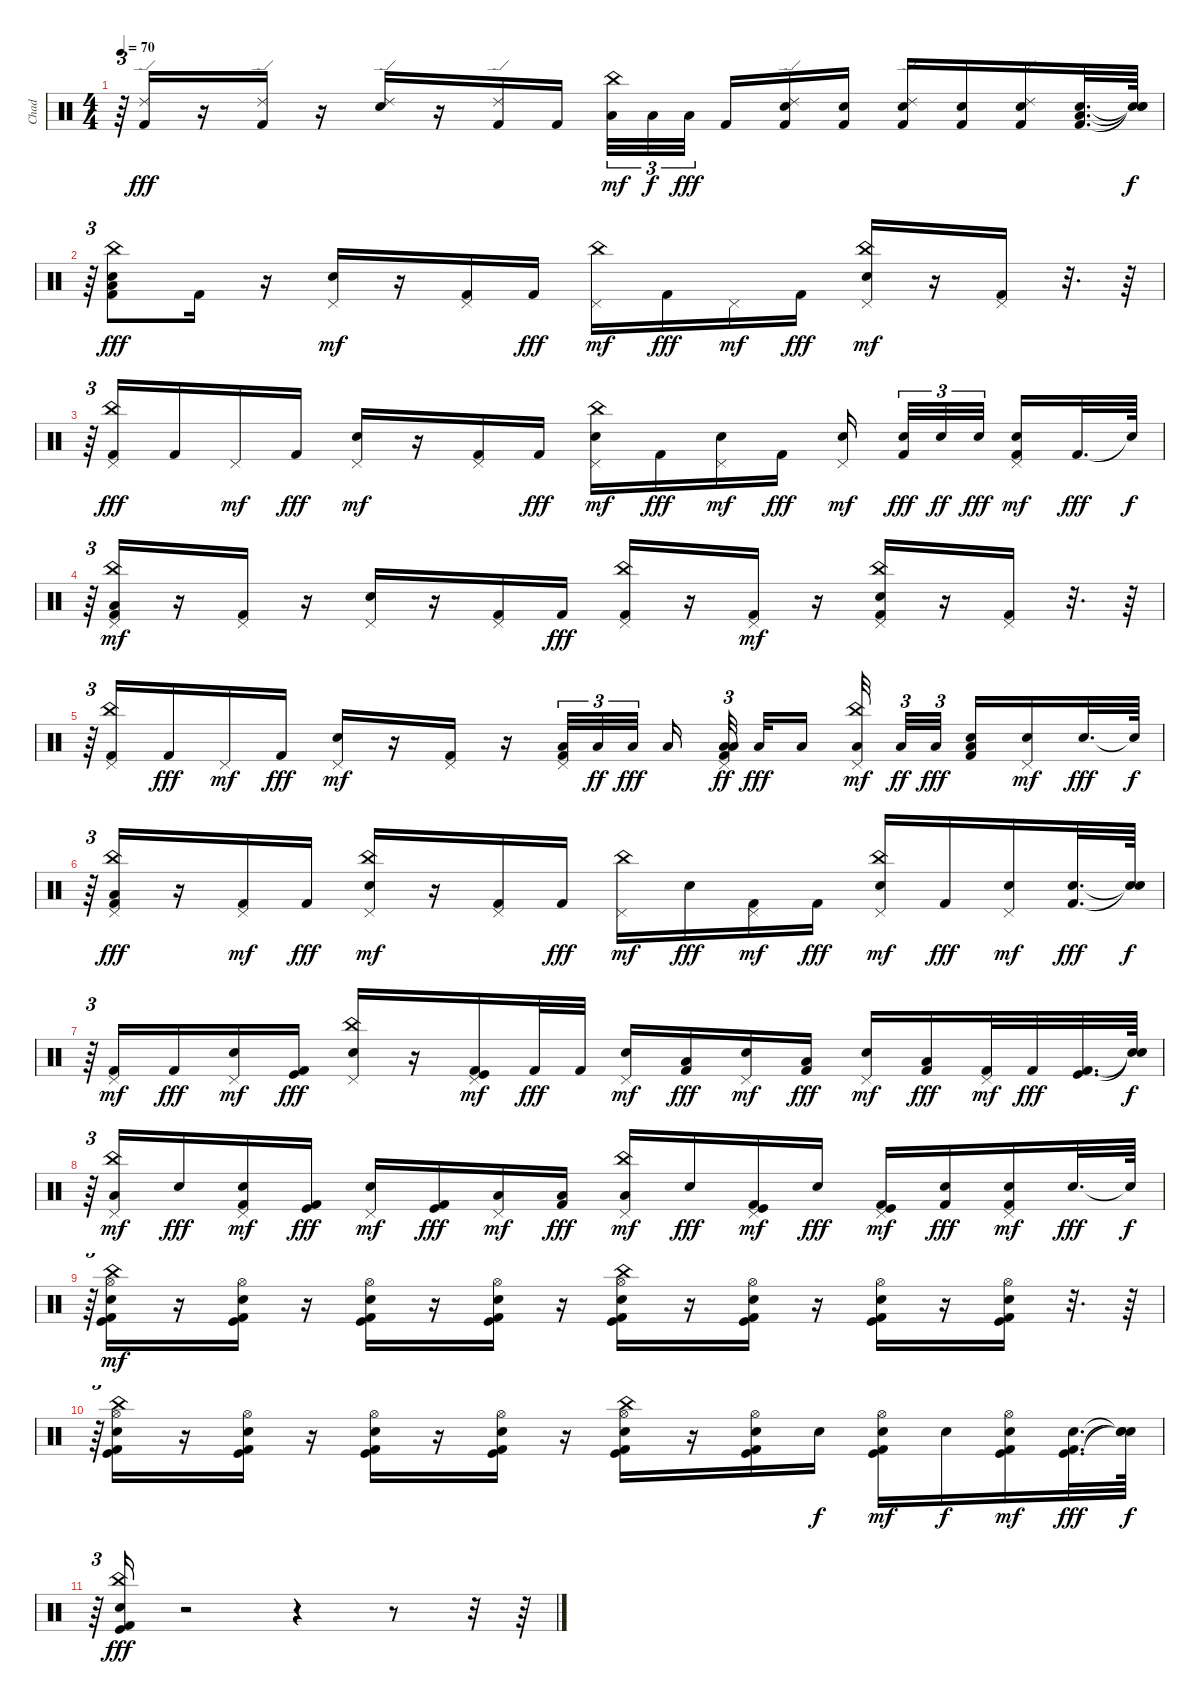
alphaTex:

\track ("Chad" "Chad") {instrument percussion}
\staff {score}
\articulation defaults
\ts (4 4)
\tempo 70
\clef neutral
\ks c
r.64{tu (3 2) dy fff} ("Kick (hit) 2" "Ride (edge) 2").16 r.16 ("Kick (hit) 2" "Ride (edge) 2").16 r.16 ("Snare (hit) 2" "Ride (edge) 2").16 r.16 ("Kick (hit) 2" "Ride (edge) 2").16 "Kick (hit) 2".16 ("Low Floor Tom (hit)" "China (hit)").32{tu (3 2) dy mf} "Low Floor Tom (hit)".32{tu (3 2) dy f} "Low Floor Tom (hit)".32{tu (3 2) dy fff beam splitsecondary} "Kick (hit) 2".16 ("Kick (hit) 2" "Hand Clap (hit)" "Ride (edge) 2").16 ("Kick (hit) 2" "Snare (hit) 2").16 ("Kick (hit) 2" "Snare (hit) 2" "Ride (edge) 2").16 ("Kick (hit) 2" "Snare (hit) 2").16 ("Kick (hit) 2" "Snare (hit) 2" "Ride (edge) 2").16 ("Kick (hit) 2" "Snare (hit) 2" "Low Floor Tom (hit)").32{d} ("Snare (hit)"{t} "Snare (hit)"{t} "Snare (hit)"{t}).64{dy f} |
r.64{tu (3 2)} ("Kick (hit) 2" "Snare (hit) 2" "Low Floor Tom (hit)" "China (hit)").8{dy fff} "Kick (hit) 2".16 r.16 ("Snare (hit) 2" "Pedal Hi-Hat (hit)").16{dy mf} r.16 ("Kick (hit) 2" "Pedal Hi-Hat (hit)").16 "Kick (hit) 2".16{dy fff} ("Pedal Hi-Hat (hit)" "China (hit)").16{dy mf} "Kick (hit) 2".16{dy fff} "Pedal Hi-Hat (hit)".16{dy mf} "Kick (hit) 2".16{dy fff} ("Snare (hit) 2" "Pedal Hi-Hat (hit)" "China (hit)").16{dy mf} r.16 ("Kick (hit) 2" "Pedal Hi-Hat (hit)").16 r.32{d} r.64 |
r.64{tu (3 2)} ("Kick (hit) 2" "Pedal Hi-Hat (hit)" "China (hit)").16{dy fff} "Kick (hit) 2".16 "Pedal Hi-Hat (hit)".16{dy mf} "Kick (hit) 2".16{dy fff} ("Snare (hit) 2" "Pedal Hi-Hat (hit)").16{dy mf} r.16 ("Kick (hit) 2" "Pedal Hi-Hat (hit)").16 "Kick (hit) 2".16{dy fff} ("Hand Clap (hit)" "Pedal Hi-Hat (hit)" "China (hit)").16{dy mf} "Kick (hit) 2".16{dy fff} ("Hand Clap (hit)" "Pedal Hi-Hat (hit)").16{dy mf} "Kick (hit) 2".16{dy fff} ("Hand Clap (hit)" "Pedal Hi-Hat (hit)").16{dy mf beam splitsecondary} ("Kick (hit) 2" "Hand Clap (hit)").32{tu (3 2) dy fff} "Hand Clap (hit)".32{tu (3 2) dy ff} "Hand Clap (hit)".32{tu (3 2) dy fff beam splitsecondary} ("Kick (hit) 2" "Snare (hit) 2" "Pedal Hi-Hat (hit)").16{dy mf} "Kick (hit) 2".32{d dy fff} "Snare (hit)"{t}.64{dy f} |
r.64{tu (3 2)} ("Kick (hit) 2" "Low Floor Tom (hit)" "Pedal Hi-Hat (hit)" "China (hit)").16{dy mf} r.16 ("Kick (hit) 2" "Pedal Hi-Hat (hit)").16 r.16 ("Snare (hit) 2" "Pedal Hi-Hat (hit)").16 r.16 ("Kick (hit) 2" "Pedal Hi-Hat (hit)").16 "Kick (hit) 2".16{dy fff} ("Kick (hit) 2" "Pedal Hi-Hat (hit)" "China (hit)").16 r.16 ("Kick (hit) 2" "Pedal Hi-Hat (hit)").16{dy mf} r.16 ("Kick (hit) 2" "Snare (hit) 2" "Pedal Hi-Hat (hit)" "China (hit)").16 r.16 ("Kick (hit) 2" "Pedal Hi-Hat (hit)").16 r.32{d} r.64 |
r.64{tu (3 2)} ("Kick (hit) 2" "Pedal Hi-Hat (hit)" "China (hit)").16 "Kick (hit) 2".16{dy fff} "Pedal Hi-Hat (hit)".16{dy mf} "Kick (hit) 2".16{dy fff} ("Snare (hit) 2" "Pedal Hi-Hat (hit)").16{dy mf} r.16 ("Kick (hit) 2" "Pedal Hi-Hat (hit)").16 r.16 ("Kick (hit) 2" "Low Floor Tom (hit)" "Pedal Hi-Hat (hit)").32{tu (3 2)} "Low Floor Tom (hit)".32{tu (3 2) dy ff} "Low Floor Tom (hit)".32{tu (3 2) dy fff beam splitsecondary} "Low Floor Tom (hit)".16{beam splitsecondary} ("Low Floor Tom (hit)" "Kick (hit) 2" "Pedal Hi-Hat (hit)" "Low Floor Tom (hit)").32{tu (3 2) dy ff beam splitsecondary} "Low Floor Tom (hit)".32{dy fff} "Low Floor Tom (hit)".16 ("Low Floor Tom (hit)" "Pedal Hi-Hat (hit)" "China (hit)").32{dy mf beam splitsecondary} "Low Floor Tom (hit)".32{tu (3 2) dy ff} "Low Floor Tom (hit)".32{tu (3 2) dy fff beam splitsecondary} ("Low Floor Tom (hit)" "Kick (hit) 2" "Snare (hit) 2").16 ("Hand Clap (hit)" "Pedal Hi-Hat (hit)").16{dy mf} "Snare (hit) 2".32{d dy fff} "Snare (hit)"{t}.64{dy f} |
r.64{tu (3 2)} ("Kick (hit) 2" "Low Floor Tom (hit)" "Pedal Hi-Hat (hit)" "China (hit)").16{dy fff} r.16 ("Kick (hit) 2" "Pedal Hi-Hat (hit)").16{dy mf} "Kick (hit) 2".16{dy fff} ("Snare (hit) 2" "Pedal Hi-Hat (hit)" "China (hit)").16{dy mf} r.16 ("Kick (hit) 2" "Pedal Hi-Hat (hit)").16 "Kick (hit) 2".16{dy fff} ("Pedal Hi-Hat (hit)" "China (hit)").16{dy mf} "Hand Clap (hit)".16{dy fff} ("Kick (hit) 2" "Pedal Hi-Hat (hit)").16{dy mf} "Kick (hit) 2".16{dy fff} ("Snare (hit) 2" "Pedal Hi-Hat (hit)" "China (hit)").16{dy mf} "Kick (hit) 2".16{dy fff} ("Hand Clap (hit)" "Pedal Hi-Hat (hit)").16{dy mf} ("Kick (hit) 2" "Snare (hit) 2").32{d dy fff} ("Snare (hit)"{t} "Snare (hit)"{t}).64{dy f} |
r.64{tu (3 2)} ("Kick (hit) 2" "Pedal Hi-Hat (hit)").16{dy mf} "Kick (hit) 2".16{dy fff} ("Hand Clap (hit)" "Pedal Hi-Hat (hit)").16{dy mf} ("Kick (hit)" "Kick (hit) 2").16{dy fff} ("Snare (hit) 2" "Pedal Hi-Hat (hit)" "China (hit)").16 r.16 ("Kick (hit)" "Kick (hit) 2" "Pedal Hi-Hat (hit)").16{dy mf} "Kick (hit) 2".32{dy fff} "Kick (hit) 2".32 ("Hand Clap (hit)" "Pedal Hi-Hat (hit)").16{dy mf} ("Kick (hit) 2" "Low Floor Tom (hit)").16{dy fff} ("Hand Clap (hit)" "Pedal Hi-Hat (hit)").16{dy mf} ("Kick (hit) 2" "Low Floor Tom (hit)").16{dy fff} ("Hand Clap (hit)" "Pedal Hi-Hat (hit)").16{dy mf} ("Kick (hit) 2" "Low Floor Tom (hit)").16{dy fff} ("Kick (hit) 2" "Pedal Hi-Hat (hit)").32{dy mf} "Kick (hit) 2".32{dy fff} ("Kick (hit)" "Kick (hit) 2").32{d} ("Snare (hit)"{t} "Snare (hit)"{t}).64{dy f} |
r.64{tu (3 2)} ("Low Floor Tom (hit)" "Pedal Hi-Hat (hit)" "China (hit)").16{dy mf} "Hand Clap (hit)".16{dy fff} ("Kick (hit) 2" "Snare (hit) 2" "Pedal Hi-Hat (hit)").16{dy mf} ("Kick (hit)" "Kick (hit) 2").16{dy fff} ("Snare (hit) 2" "Pedal Hi-Hat (hit)").16{dy mf} ("Kick (hit)" "Kick (hit) 2").16{dy fff} ("Low Floor Tom (hit)" "Pedal Hi-Hat (hit)").16{dy mf} ("Kick (hit) 2" "Low Floor Tom (hit)").16{dy fff} ("Low Floor Tom (hit)" "Pedal Hi-Hat (hit)" "China (hit)").16{dy mf} "Snare (hit) 2".16{dy fff} ("Kick (hit)" "Kick (hit) 2" "Pedal Hi-Hat (hit)").16{dy mf} "Hand Clap (hit)".16{dy fff} ("Kick (hit)" "Kick (hit) 2" "Pedal Hi-Hat (hit)").16{dy mf} ("Kick (hit) 2" "Snare (hit) 2").16{dy fff} ("Kick (hit) 2" "Snare (hit) 2" "Pedal Hi-Hat (hit)").16{dy mf} "Snare (hit) 2".32{d dy fff} "Snare (hit)"{t}.64{dy f} |
r.64{tu (3 2)} ("Kick (hit)" "Kick (hit) 2" "Snare (hit) 2" "Hi-Hat (open)" "China (hit)").16{dy mf} r.16 ("Kick (hit)" "Kick (hit) 2" "Snare (hit) 2" "Hi-Hat (open)").16 r.16 ("Kick (hit)" "Kick (hit) 2" "Snare (hit) 2" "Hi-Hat (open)").16 r.16 ("Kick (hit)" "Kick (hit) 2" "Snare (hit) 2" "Hi-Hat (open)").16 r.16 ("Kick (hit)" "Kick (hit) 2" "Snare (hit) 2" "Hi-Hat (open)" "China (hit)").16 r.16 ("Kick (hit)" "Kick (hit) 2" "Snare (hit) 2" "Hi-Hat (open)").16 r.16 ("Kick (hit)" "Kick (hit) 2" "Snare (hit) 2" "Hi-Hat (open)").16 r.16 ("Kick (hit)" "Kick (hit) 2" "Snare (hit) 2" "Hi-Hat (open)").16 r.32{d} r.64 |
r.64{tu (3 2)} ("Kick (hit)" "Kick (hit) 2" "Snare (hit) 2" "Hi-Hat (open)" "China (hit)").16 r.16 ("Kick (hit)" "Kick (hit) 2" "Snare (hit) 2" "Hi-Hat (open)").16 r.16 ("Kick (hit)" "Kick (hit) 2" "Snare (hit) 2" "Hi-Hat (open)").16 r.16 ("Kick (hit)" "Kick (hit) 2" "Snare (hit) 2" "Hi-Hat (open)").16 r.16 ("Kick (hit)" "Kick (hit) 2" "Snare (hit) 2" "Hi-Hat (open)" "China (hit)").16 r.16 ("Kick (hit)" "Kick (hit) 2" "Hand Clap (hit)" "Hi-Hat (open)").16 "Hand Clap (hit)".16{dy f} ("Kick (hit)" "Kick (hit) 2" "Hand Clap (hit)" "Hi-Hat (open)").16{dy mf} "Hand Clap (hit)".16{dy f} ("Kick (hit)" "Kick (hit) 2" "Snare (hit) 2" "Hi-Hat (open)").16{dy mf} ("Kick (hit)" "Kick (hit) 2" "Snare (hit) 2").32{d dy fff} ("Snare (hit)"{t} "Snare (hit)"{t} "Snare (hit)"{t}).64{dy f} |
r.64{tu (3 2)} ("Kick (hit)" "Kick (hit) 2" "Snare (hit) 2" "China (hit)").16{dy fff} r.2 r.4 r.8 r.32 r.64
